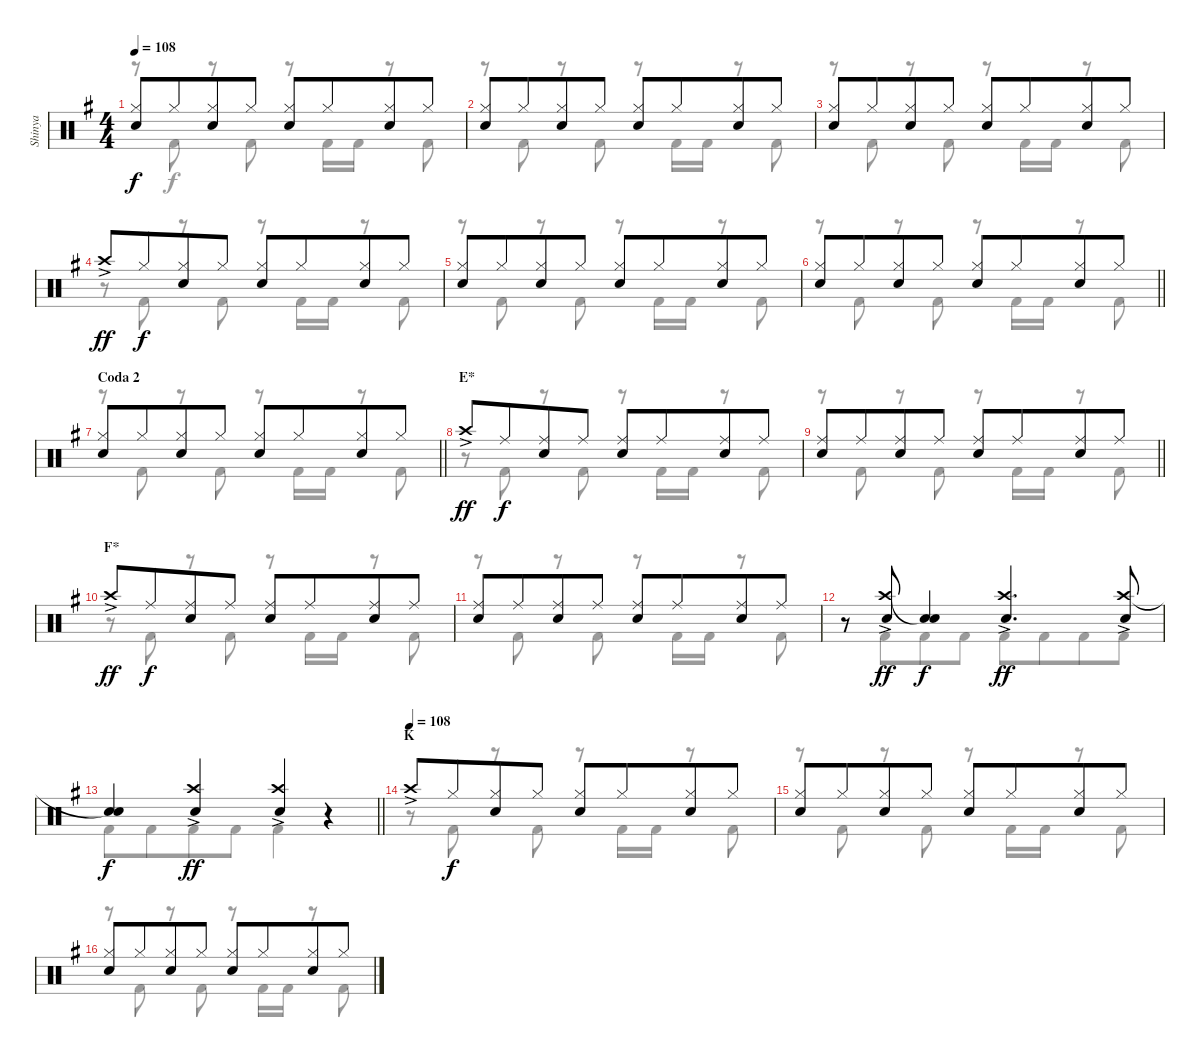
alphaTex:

\track ("Shinya" "Shinya") {instrument percussion}
\staff {score}
\articulation defaults
\voice
\ts (4 4)
\tempo 108
\clef neutral
\ks eminor
("Hi-Hat (closed)" "Snare (hit) 2").8{dy f} "Hi-Hat (closed)".8{beam merge} ("Hi-Hat (closed)" "Snare (hit) 2").8 "Hi-Hat (closed)".8 ("Hi-Hat (closed)" "Snare (hit) 2").8 "Hi-Hat (closed)".8{beam merge} ("Hi-Hat (closed)" "Snare (hit) 2").8 "Hi-Hat (closed)".8 |
("Hi-Hat (closed)" "Snare (hit) 2").8 "Hi-Hat (closed)".8{beam merge} ("Hi-Hat (closed)" "Snare (hit) 2").8 "Hi-Hat (closed)".8 ("Hi-Hat (closed)" "Snare (hit) 2").8 "Hi-Hat (closed)".8{beam merge} ("Hi-Hat (closed)" "Snare (hit) 2").8 "Hi-Hat (closed)".8 |
("Hi-Hat (closed)" "Snare (hit) 2").8 "Hi-Hat (closed)".8{beam merge} ("Hi-Hat (closed)" "Snare (hit) 2").8 "Hi-Hat (closed)".8 ("Hi-Hat (closed)" "Snare (hit) 2").8 "Hi-Hat (closed)".8{beam merge} ("Hi-Hat (closed)" "Snare (hit) 2").8 "Hi-Hat (closed)".8 |
"Crash high (hit)"{ac}.8{dy ff} "Hi-Hat (closed)".8{dy f beam merge} ("Hi-Hat (closed)" "Snare (hit) 2").8 "Hi-Hat (closed)".8 ("Hi-Hat (closed)" "Snare (hit) 2").8 "Hi-Hat (closed)".8{beam merge} ("Hi-Hat (closed)" "Snare (hit) 2").8 "Hi-Hat (closed)".8 |
("Hi-Hat (closed)" "Snare (hit) 2").8 "Hi-Hat (closed)".8{beam merge} ("Hi-Hat (closed)" "Snare (hit) 2").8 "Hi-Hat (closed)".8 ("Hi-Hat (closed)" "Snare (hit) 2").8 "Hi-Hat (closed)".8{beam merge} ("Hi-Hat (closed)" "Snare (hit) 2").8 "Hi-Hat (closed)".8 |
\barLineRight lightlight
("Hi-Hat (closed)" "Snare (hit) 2").8 "Hi-Hat (closed)".8{beam merge} ("Hi-Hat (closed)" "Snare (hit) 2").8 "Hi-Hat (closed)".8 ("Hi-Hat (closed)" "Snare (hit) 2").8 "Hi-Hat (closed)".8{beam merge} ("Hi-Hat (closed)" "Snare (hit) 2").8 "Hi-Hat (closed)".8 |
\section ("" "Coda 2")
\barLineRight lightlight
("Hi-Hat (closed)" "Snare (hit) 2").8 "Hi-Hat (closed)".8{beam merge} ("Hi-Hat (closed)" "Snare (hit) 2").8 "Hi-Hat (closed)".8 ("Hi-Hat (closed)" "Snare (hit) 2").8 "Hi-Hat (closed)".8{beam merge} ("Hi-Hat (closed)" "Snare (hit) 2").8 "Hi-Hat (closed)".8 |
\section ("" "E*")
"Crash high (hit)"{ac}.8{dy ff} "Ride (middle)".8{dy f beam merge} ("Ride (middle)" "Snare (hit) 2").8 "Ride (middle)".8 ("Ride (middle)" "Snare (hit) 2").8 "Ride (middle)".8{beam merge} ("Ride (middle)" "Snare (hit) 2").8 "Ride (middle)".8 |
\barLineRight lightlight
("Ride (middle)" "Snare (hit) 2").8 "Ride (middle)".8{beam merge} ("Ride (middle)" "Snare (hit) 2").8 "Ride (middle)".8 ("Ride (middle)" "Snare (hit) 2").8 "Ride (middle)".8{beam merge} ("Ride (middle)" "Snare (hit) 2").8 "Ride (middle)".8 |
\section ("" "F*")
"Crash high (hit)"{ac}.8{dy ff} "Ride (middle)".8{dy f beam merge} ("Ride (middle)" "Snare (hit) 2").8 "Ride (middle)".8 ("Ride (middle)" "Snare (hit) 2").8 "Ride (middle)".8{beam merge} ("Ride (middle)" "Snare (hit) 2").8 "Ride (middle)".8 |
("Ride (middle)" "Snare (hit) 2").8 "Ride (middle)".8{beam merge} ("Ride (middle)" "Snare (hit) 2").8 "Ride (middle)".8 ("Ride (middle)" "Snare (hit) 2").8 "Ride (middle)".8{beam merge} ("Ride (middle)" "Snare (hit) 2").8 "Ride (middle)".8 |
r.8 ("Crash high (hit)"{ac} "Snare (hit) 2").8{dy ff} ("Snare (hit)"{t} "Snare (hit) 2").4{dy f} ("Crash high (hit)"{ac} "Snare (hit) 2").4{d dy ff} ("Crash high (hit)"{ac} "Snare (hit) 2").8 |
\barLineRight lightlight
("Snare (hit)"{t} "Snare (hit) 2").4{dy f} ("Crash high (hit)"{ac} "Snare (hit) 2").4{dy ff} ("Crash high (hit)" "Snare (hit) 2"{ac}).4 r.4 |
\section ("" "K")
\tempo (108)
"Crash high (hit)"{ac}.8 "Hi-Hat (closed)".8{dy f beam merge} ("Hi-Hat (closed)" "Snare (hit) 2").8 "Hi-Hat (closed)".8 ("Hi-Hat (closed)" "Snare (hit) 2").8 "Hi-Hat (closed)".8{beam merge} ("Hi-Hat (closed)" "Snare (hit) 2").8 "Hi-Hat (closed)".8 |
("Hi-Hat (closed)" "Snare (hit) 2").8 "Hi-Hat (closed)".8{beam merge} ("Hi-Hat (closed)" "Snare (hit) 2").8 "Hi-Hat (closed)".8 ("Hi-Hat (closed)" "Snare (hit) 2").8 "Hi-Hat (closed)".8{beam merge} ("Hi-Hat (closed)" "Snare (hit) 2").8 "Hi-Hat (closed)".8 |
("Hi-Hat (closed)" "Snare (hit) 2").8 "Hi-Hat (closed)".8{beam merge} ("Hi-Hat (closed)" "Snare (hit) 2").8 "Hi-Hat (closed)".8 ("Hi-Hat (closed)" "Snare (hit) 2").8 "Hi-Hat (closed)".8{beam merge} ("Hi-Hat (closed)" "Snare (hit) 2").8 "Hi-Hat (closed)".8
\voice
\clef neutral
\ottava regular
\simile none
\ks eminor
r.8{dy f} "Kick (hit) 2".8 r.8 "Kick (hit) 2".8 r.8 "Kick (hit) 2".16 "Kick (hit) 2".16 r.8 "Kick (hit) 2".8 |
r.8 "Kick (hit) 2".8 r.8 "Kick (hit) 2".8 r.8 "Kick (hit) 2".16 "Kick (hit) 2".16 r.8 "Kick (hit) 2".8 |
r.8 "Kick (hit) 2".8 r.8 "Kick (hit) 2".8 r.8 "Kick (hit) 2".16 "Kick (hit) 2".16 r.8 "Kick (hit) 2".8 |
r.8 "Kick (hit) 2".8 r.8 "Kick (hit) 2".8 r.8 "Kick (hit) 2".16 "Kick (hit) 2".16 r.8 "Kick (hit) 2".8 |
r.8 "Kick (hit) 2".8 r.8 "Kick (hit) 2".8 r.8 "Kick (hit) 2".16 "Kick (hit) 2".16 r.8 "Kick (hit) 2".8 |
\barLineRight lightlight
r.8 "Kick (hit) 2".8 r.8 "Kick (hit) 2".8 r.8 "Kick (hit) 2".16 "Kick (hit) 2".16 r.8 "Kick (hit) 2".8 |
\barLineRight lightlight
r.8 "Kick (hit) 2".8 r.8 "Kick (hit) 2".8 r.8 "Kick (hit) 2".16 "Kick (hit) 2".16 r.8 "Kick (hit) 2".8 |
r.8 "Kick (hit) 2".8 r.8 "Kick (hit) 2".8 r.8 "Kick (hit) 2".16 "Kick (hit) 2".16 r.8 "Kick (hit) 2".8 |
\barLineRight lightlight
r.8 "Kick (hit) 2".8 r.8 "Kick (hit) 2".8 r.8 "Kick (hit) 2".16 "Kick (hit) 2".16 r.8 "Kick (hit) 2".8 |
r.8 "Kick (hit) 2".8 r.8 "Kick (hit) 2".8 r.8 "Kick (hit) 2".16 "Kick (hit) 2".16 r.8 "Kick (hit) 2".8 |
r.8 "Kick (hit) 2".8 r.8 "Kick (hit) 2".8 r.8 "Kick (hit) 2".16 "Kick (hit) 2".16 r.8 "Kick (hit) 2".8 |
r.8 "Kick (hit) 2".8{beam merge} "Kick (hit) 2".8 "Kick (hit) 2".8 "Kick (hit) 2".8 "Kick (hit) 2".8{beam merge} "Kick (hit) 2".8 "Kick (hit) 2".8 |
\barLineRight lightlight "Kick (hit) 2".8 "Kick (hit) 2".8{beam merge} "Kick (hit) 2".8 "Kick (hit) 2".8 "Kick (hit) 2".4
r.4 |
r.8 "Kick (hit) 2".8 r.8 "Kick (hit) 2".8 r.8 "Kick (hit) 2".16 "Kick (hit) 2".16 r.8 "Kick (hit) 2".8 |
r.8 "Kick (hit) 2".8 r.8 "Kick (hit) 2".8 r.8 "Kick (hit) 2".16 "Kick (hit) 2".16 r.8 "Kick (hit) 2".8 |
r.8 "Kick (hit) 2".8 r.8 "Kick (hit) 2".8 r.8 "Kick (hit) 2".16 "Kick (hit) 2".16 r.8 "Kick (hit) 2".8
